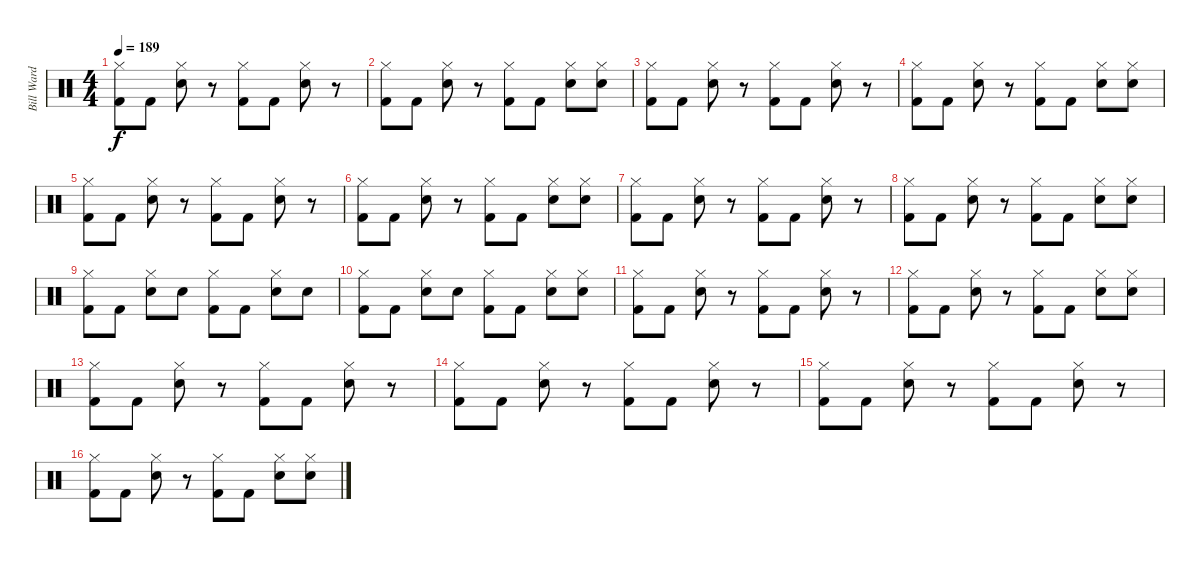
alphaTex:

\track ("Bill Ward" "Bill Ward") {instrument percussion}
\staff {score}
\articulation defaults
\ts (4 4)
\tempo 189
\clef neutral
\ks c
("Hi-Hat (closed)" "Kick (hit) 2").8{dy f} "Kick (hit) 2".8 ("Hi-Hat (closed)" "Electric Snare (hit)").8 r.8 ("Hi-Hat (closed)" "Kick (hit) 2").8 "Kick (hit) 2".8 ("Hi-Hat (closed)" "Electric Snare (hit)").8 r.8 |
("Hi-Hat (closed)" "Kick (hit) 2").8 "Kick (hit) 2".8 ("Electric Snare (hit)" "Hi-Hat (closed)").8 r.8 ("Kick (hit) 2" "Hi-Hat (closed)").8 "Kick (hit) 2".8 ("Hi-Hat (closed)" "Electric Snare (hit)").8 ("Hi-Hat (closed)" "Electric Snare (hit)").8 |
("Kick (hit) 2" "Hi-Hat (closed)").8 "Kick (hit) 2".8 ("Hi-Hat (closed)" "Electric Snare (hit)").8 r.8 ("Hi-Hat (closed)" "Kick (hit) 2").8 "Kick (hit) 2".8 ("Hi-Hat (closed)" "Electric Snare (hit)").8 r.8 |
("Kick (hit) 2" "Hi-Hat (closed)").8 "Kick (hit) 2".8 ("Hi-Hat (closed)" "Electric Snare (hit)").8 r.8 ("Kick (hit) 2" "Hi-Hat (closed)").8 "Kick (hit) 2".8 ("Hi-Hat (closed)" "Electric Snare (hit)").8 ("Electric Snare (hit)" "Hi-Hat (closed)").8 |
("Kick (hit) 2" "Hi-Hat (closed)").8 "Kick (hit) 2".8 ("Hi-Hat (closed)" "Electric Snare (hit)").8 r.8 ("Hi-Hat (closed)" "Kick (hit) 2").8 "Kick (hit) 2".8 ("Hi-Hat (closed)" "Electric Snare (hit)").8 r.8 |
("Hi-Hat (closed)" "Kick (hit) 2").8 "Kick (hit) 2".8 ("Electric Snare (hit)" "Hi-Hat (closed)").8 r.8 ("Hi-Hat (closed)" "Kick (hit) 2").8 "Kick (hit) 2".8 ("Electric Snare (hit)" "Hi-Hat (closed)").8 ("Electric Snare (hit)" "Hi-Hat (closed)").8 |
("Hi-Hat (closed)" "Kick (hit) 2").8 "Kick (hit) 2".8 ("Hi-Hat (closed)" "Electric Snare (hit)").8 r.8 ("Kick (hit) 2" "Hi-Hat (closed)").8 "Kick (hit) 2".8 ("Hi-Hat (closed)" "Electric Snare (hit)").8 r.8 |
("Kick (hit) 2" "Hi-Hat (closed)").8 "Kick (hit) 2".8 ("Hi-Hat (closed)" "Electric Snare (hit)").8 r.8 ("Hi-Hat (closed)" "Kick (hit) 2").8 "Kick (hit) 2".8 ("Electric Snare (hit)" "Hi-Hat (closed)").8 ("Hi-Hat (closed)" "Electric Snare (hit)").8 |
("Hi-Hat (closed)" "Kick (hit) 2").8 "Kick (hit) 2".8 ("Electric Snare (hit)" "Hi-Hat (closed)").8 "Electric Snare (hit)".8 ("Kick (hit) 2" "Hi-Hat (closed)").8 "Kick (hit) 2".8 ("Electric Snare (hit)" "Hi-Hat (closed)").8 "Electric Snare (hit)".8 |
("Kick (hit) 2" "Hi-Hat (closed)").8 "Kick (hit) 2".8 ("Hi-Hat (closed)" "Electric Snare (hit)").8 "Electric Snare (hit)".8 ("Hi-Hat (closed)" "Kick (hit) 2").8 "Kick (hit) 2".8 ("Hi-Hat (closed)" "Electric Snare (hit)").8 ("Hi-Hat (closed)" "Electric Snare (hit)").8 |
("Kick (hit) 2" "Hi-Hat (closed)").8 "Kick (hit) 2".8 ("Hi-Hat (closed)" "Electric Snare (hit)").8 r.8 ("Hi-Hat (closed)" "Kick (hit) 2").8 "Kick (hit) 2".8 ("Hi-Hat (closed)" "Electric Snare (hit)").8 r.8 |
("Hi-Hat (closed)" "Kick (hit) 2").8 "Kick (hit) 2".8 ("Hi-Hat (closed)" "Electric Snare (hit)").8 r.8 ("Kick (hit) 2" "Hi-Hat (closed)").8 "Kick (hit) 2".8 ("Hi-Hat (closed)" "Electric Snare (hit)").8 ("Electric Snare (hit)" "Hi-Hat (closed)").8 |
("Kick (hit) 2" "Hi-Hat (closed)").8 "Kick (hit) 2".8 ("Electric Snare (hit)" "Hi-Hat (closed)").8 r.8 ("Hi-Hat (closed)" "Kick (hit) 2").8 "Kick (hit) 2".8 ("Hi-Hat (closed)" "Electric Snare (hit)").8 r.8 |
("Kick (hit) 2" "Hi-Hat (closed)").8 "Kick (hit) 2".8 ("Hi-Hat (closed)" "Electric Snare (hit)").8 r.8 ("Hi-Hat (closed)" "Kick (hit) 2").8 "Kick (hit) 2".8 ("Electric Snare (hit)" "Hi-Hat (closed)").8 r.8 |
("Hi-Hat (closed)" "Kick (hit) 2").8 "Kick (hit) 2".8 ("Hi-Hat (closed)" "Electric Snare (hit)").8 r.8 ("Hi-Hat (closed)" "Kick (hit) 2").8 "Kick (hit) 2".8 ("Hi-Hat (closed)" "Electric Snare (hit)").8 r.8 |
("Hi-Hat (closed)" "Kick (hit) 2").8 "Kick (hit) 2".8 ("Hi-Hat (closed)" "Electric Snare (hit)").8 r.8 ("Kick (hit) 2" "Hi-Hat (closed)").8 "Kick (hit) 2".8 ("Hi-Hat (closed)" "Electric Snare (hit)").8 ("Hi-Hat (closed)" "Electric Snare (hit)").8
